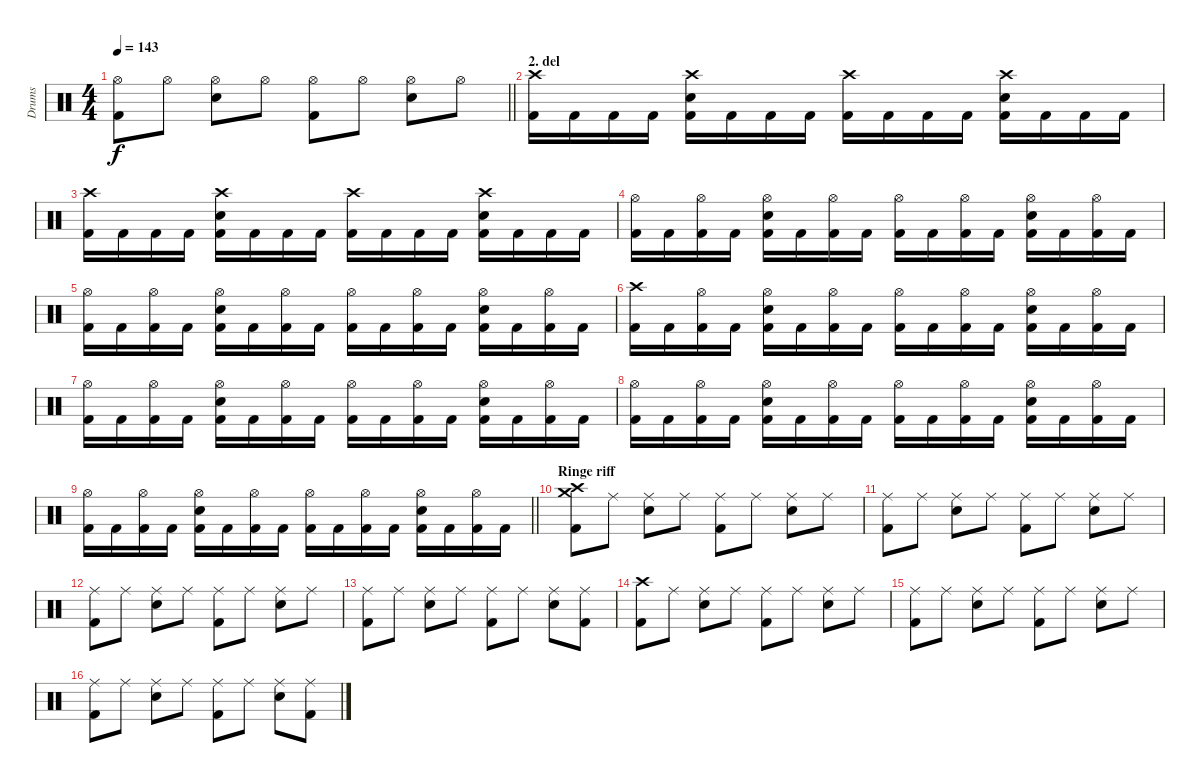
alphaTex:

\track ("Drums" "Drums") {instrument percussion}
\staff {score}
\articulation defaults
\ts (4 4)
\tempo 143
\clef neutral
\barLineRight lightlight
\ks c
("Hi-Hat (open)" "Kick (hit) 2").8{dy f} "Hi-Hat (open)".8 ("Hi-Hat (open)" "Snare (hit) 2").8 "Hi-Hat (open)".8 ("Hi-Hat (open)" "Kick (hit) 2").8 "Hi-Hat (open)".8 ("Hi-Hat (open)" "Snare (hit) 2").8 "Hi-Hat (open)".8 |
\section ("" "2. del")
("Crash high (hit)" "Kick (hit) 2").16 "Kick (hit) 2".16 "Kick (hit) 2".16 "Kick (hit) 2".16 ("Crash high (hit)" "Snare (hit) 2" "Kick (hit) 2").16 "Kick (hit) 2".16 "Kick (hit) 2".16 "Kick (hit) 2".16 ("Crash high (hit)" "Kick (hit) 2").16 "Kick (hit) 2".16 "Kick (hit) 2".16 "Kick (hit) 2".16 ("Crash high (hit)" "Snare (hit) 2" "Kick (hit) 2").16 "Kick (hit) 2".16 "Kick (hit) 2".16 "Kick (hit) 2".16 |
("Crash high (hit)" "Kick (hit) 2").16 "Kick (hit) 2".16 "Kick (hit) 2".16 "Kick (hit) 2".16 ("Crash high (hit)" "Snare (hit) 2" "Kick (hit) 2").16 "Kick (hit) 2".16 "Kick (hit) 2".16 "Kick (hit) 2".16 ("Crash high (hit)" "Kick (hit) 2").16 "Kick (hit) 2".16 "Kick (hit) 2".16 "Kick (hit) 2".16 ("Crash high (hit)" "Snare (hit) 2" "Kick (hit) 2").16 "Kick (hit) 2".16 "Kick (hit) 2".16 "Kick (hit) 2".16 |
("Hi-Hat (open)" "Kick (hit) 2").16 "Kick (hit) 2".16 ("Hi-Hat (open)" "Kick (hit) 2").16 "Kick (hit) 2".16 ("Hi-Hat (open)" "Snare (hit) 2" "Kick (hit) 2").16 "Kick (hit) 2".16 ("Hi-Hat (open)" "Kick (hit) 2").16 "Kick (hit) 2".16 ("Hi-Hat (open)" "Kick (hit) 2").16 "Kick (hit) 2".16 ("Hi-Hat (open)" "Kick (hit) 2").16 "Kick (hit) 2".16 ("Hi-Hat (open)" "Snare (hit) 2" "Kick (hit) 2").16 "Kick (hit) 2".16 ("Hi-Hat (open)" "Kick (hit) 2").16 "Kick (hit) 2".16 |
("Hi-Hat (open)" "Kick (hit) 2").16 "Kick (hit) 2".16 ("Hi-Hat (open)" "Kick (hit) 2").16 "Kick (hit) 2".16 ("Hi-Hat (open)" "Snare (hit) 2" "Kick (hit) 2").16 "Kick (hit) 2".16 ("Hi-Hat (open)" "Kick (hit) 2").16 "Kick (hit) 2".16 ("Hi-Hat (open)" "Kick (hit) 2").16 "Kick (hit) 2".16 ("Hi-Hat (open)" "Kick (hit) 2").16 "Kick (hit) 2".16 ("Hi-Hat (open)" "Snare (hit) 2" "Kick (hit) 2").16 "Kick (hit) 2".16 ("Hi-Hat (open)" "Kick (hit) 2").16 "Kick (hit) 2".16 |
("Crash high (hit)" "Kick (hit) 2").16 "Kick (hit) 2".16 ("Hi-Hat (open)" "Kick (hit) 2").16 "Kick (hit) 2".16 ("Hi-Hat (open)" "Snare (hit) 2" "Kick (hit) 2").16 "Kick (hit) 2".16 ("Hi-Hat (open)" "Kick (hit) 2").16 "Kick (hit) 2".16 ("Hi-Hat (open)" "Kick (hit) 2").16 "Kick (hit) 2".16 ("Hi-Hat (open)" "Kick (hit) 2").16 "Kick (hit) 2".16 ("Hi-Hat (open)" "Snare (hit) 2" "Kick (hit) 2").16 "Kick (hit) 2".16 ("Hi-Hat (open)" "Kick (hit) 2").16 "Kick (hit) 2".16 |
("Hi-Hat (open)" "Kick (hit) 2").16 "Kick (hit) 2".16 ("Hi-Hat (open)" "Kick (hit) 2").16 "Kick (hit) 2".16 ("Hi-Hat (open)" "Snare (hit) 2" "Kick (hit) 2").16 "Kick (hit) 2".16 ("Hi-Hat (open)" "Kick (hit) 2").16 "Kick (hit) 2".16 ("Hi-Hat (open)" "Kick (hit) 2").16 "Kick (hit) 2".16 ("Hi-Hat (open)" "Kick (hit) 2").16 "Kick (hit) 2".16 ("Hi-Hat (open)" "Snare (hit) 2" "Kick (hit) 2").16 "Kick (hit) 2".16 ("Hi-Hat (open)" "Kick (hit) 2").16 "Kick (hit) 2".16 |
("Hi-Hat (open)" "Kick (hit) 2").16 "Kick (hit) 2".16 ("Hi-Hat (open)" "Kick (hit) 2").16 "Kick (hit) 2".16 ("Hi-Hat (open)" "Snare (hit) 2" "Kick (hit) 2").16 "Kick (hit) 2".16 ("Hi-Hat (open)" "Kick (hit) 2").16 "Kick (hit) 2".16 ("Hi-Hat (open)" "Kick (hit) 2").16 "Kick (hit) 2".16 ("Hi-Hat (open)" "Kick (hit) 2").16 "Kick (hit) 2".16 ("Hi-Hat (open)" "Snare (hit) 2" "Kick (hit) 2").16 "Kick (hit) 2".16 ("Hi-Hat (open)" "Kick (hit) 2").16 "Kick (hit) 2".16 |
\barLineRight lightlight
("Hi-Hat (open)" "Kick (hit) 2").16 "Kick (hit) 2".16 ("Hi-Hat (open)" "Kick (hit) 2").16 "Kick (hit) 2".16 ("Hi-Hat (open)" "Snare (hit) 2" "Kick (hit) 2").16 "Kick (hit) 2".16 ("Hi-Hat (open)" "Kick (hit) 2").16 "Kick (hit) 2".16 ("Hi-Hat (open)" "Kick (hit) 2").16 "Kick (hit) 2".16 ("Hi-Hat (open)" "Kick (hit) 2").16 "Kick (hit) 2".16 ("Hi-Hat (open)" "Snare (hit) 2" "Kick (hit) 2").16 "Kick (hit) 2".16 ("Hi-Hat (open)" "Kick (hit) 2").16 "Kick (hit) 2".16 |
\section ("" "Ringe riff")
("Crash medium (hit)" "Crash high (hit)" "Kick (hit) 2").8 "Ride (middle)".8 ("Ride (middle)" "Snare (hit) 2").8 "Ride (middle)".8 ("Ride (middle)" "Kick (hit) 2").8 "Ride (middle)".8 ("Ride (middle)" "Snare (hit) 2").8 "Ride (middle)".8 |
("Ride (middle)" "Kick (hit) 2").8 "Ride (middle)".8 ("Ride (middle)" "Snare (hit) 2").8 "Ride (middle)".8 ("Ride (middle)" "Kick (hit) 2").8 "Ride (middle)".8 ("Ride (middle)" "Snare (hit) 2").8 "Ride (middle)".8 |
("Ride (middle)" "Kick (hit) 2").8 "Ride (middle)".8 ("Ride (middle)" "Snare (hit) 2").8 "Ride (middle)".8 ("Ride (middle)" "Kick (hit) 2").8 "Ride (middle)".8 ("Ride (middle)" "Snare (hit) 2").8 "Ride (middle)".8 |
("Ride (middle)" "Kick (hit) 2").8 "Ride (middle)".8 ("Ride (middle)" "Snare (hit) 2").8 "Ride (middle)".8 ("Ride (middle)" "Kick (hit) 2").8 "Ride (middle)".8 ("Ride (middle)" "Snare (hit) 2").8 ("Ride (middle)" "Kick (hit) 2").8 |
("Crash high (hit)" "Kick (hit) 2").8 "Ride (middle)".8 ("Ride (middle)" "Snare (hit) 2").8 "Ride (middle)".8 ("Ride (middle)" "Kick (hit) 2").8 "Ride (middle)".8 ("Ride (middle)" "Snare (hit) 2").8 "Ride (middle)".8 |
("Ride (middle)" "Kick (hit) 2").8 "Ride (middle)".8 ("Ride (middle)" "Snare (hit) 2").8 "Ride (middle)".8 ("Ride (middle)" "Kick (hit) 2").8 "Ride (middle)".8 ("Ride (middle)" "Snare (hit) 2").8 "Ride (middle)".8 |
("Ride (middle)" "Kick (hit) 2").8 "Ride (middle)".8 ("Ride (middle)" "Snare (hit) 2").8 "Ride (middle)".8 ("Ride (middle)" "Kick (hit) 2").8 "Ride (middle)".8 ("Ride (middle)" "Snare (hit) 2").8 ("Ride (middle)" "Kick (hit) 2").8
